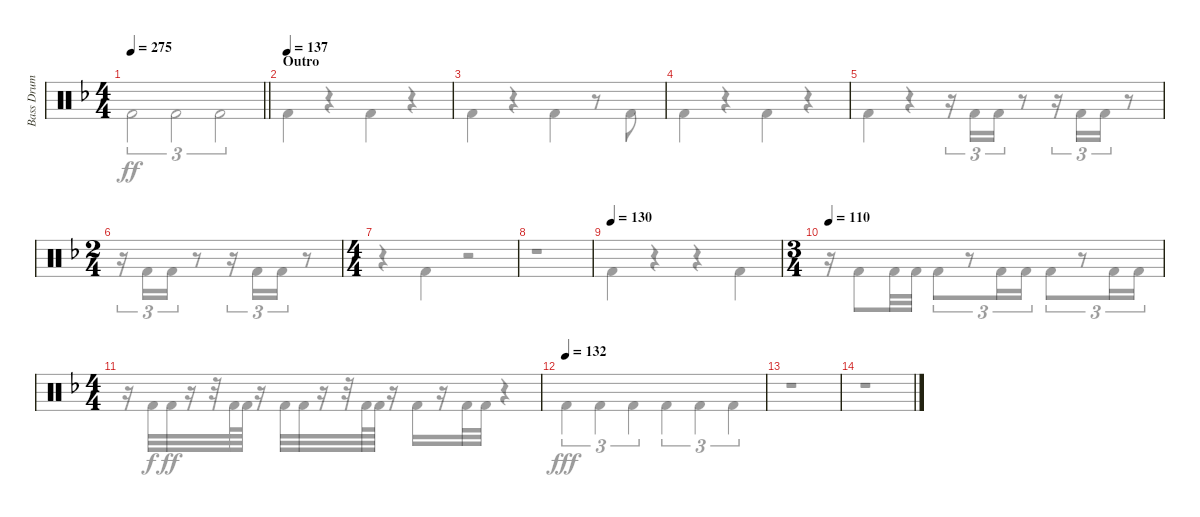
\track ("Bass Drum" "Bass Drum") {instrument percussion}
\staff {score}
\articulation defaults
\voice
\ts (4 4)
\tempo 275
\clef neutral
\barLineRight lightlight
\ks dminor
|
\section ("" "Outro")
\tempo 137
|
|
|
|
\ts (2 4)
|
\ts (4 4)
|
|
\tempo 130
|
\ts (3 4)
\tempo 110
|
\ts (4 4)
|
\tempo 132
|
|
\voice
\clef neutral
\barLineRight lightlight
\ks dminor "Kick (hit) 2".2{tu (3 2) dy ff} "Kick (hit) 2".2{tu (3 2)} "Kick (hit) 2".2{tu (3 2)}
|
"Kick (hit) 2".4 r.4 "Kick (hit) 2".4 r.4 |
"Kick (hit) 2".4 r.4 "Kick (hit) 2".4 r.8 "Kick (hit) 2".8 |
"Kick (hit) 2".4 r.4 "Kick (hit) 2".4 r.4 |
"Kick (hit) 2".4 r.4 r.16{tu (3 2)} "Kick (hit) 2".16{tu (3 2)} "Kick (hit) 2".16{tu (3 2)} r.8 r.16{tu (3 2)} "Kick (hit) 2".16{tu (3 2)} "Kick (hit) 2".16{tu (3 2)} r.8 |
r.16{tu (3 2)} "Kick (hit) 2".16{tu (3 2)} "Kick (hit) 2".16{tu (3 2)} r.8 r.16{tu (3 2)} "Kick (hit) 2".16{tu (3 2)} "Kick (hit) 2".16{tu (3 2)} r.8 |
r.4 "Kick (hit) 2".4 r.2 |
r.1 |
"Kick (hit) 2".4 r.4 r.4 "Kick (hit) 2".4 |
r.16 "Kick (hit) 2".8 "Kick (hit) 2".32 "Kick (hit) 2".32 "Kick (hit) 2".8{tu (3 2)} r.8{tu (3 2)} "Kick (hit) 2".16{tu (3 2)} "Kick (hit) 2".16{tu (3 2)} "Kick (hit) 2".8{tu (3 2)} r.8{tu (3 2)} "Kick (hit) 2".16{tu (3 2)} "Kick (hit) 2".16{tu (3 2)} |
r.16 "Kick (hit) 2".32{dy f} "Kick (hit) 2".32{dy ff} r.16 r.32 "Kick (hit) 2".64 "Kick (hit) 2".64 r.16 "Kick (hit) 2".32 "Kick (hit) 2".32 r.16 r.32 "Kick (hit) 2".64 "Kick (hit) 2".64 r.16 "Kick (hit) 2".16 r.16 "Kick (hit) 2".32 "Kick (hit) 2".32 r.4 |
"Kick (hit) 2".4{tu (3 2) dy fff} "Kick (hit) 2".4{tu (3 2)} "Kick (hit) 2".4{tu (3 2)} "Kick (hit) 2".4{tu (3 2)} "Kick (hit) 2".4{tu (3 2)} "Kick (hit) 2".4{tu (3 2)} |
r.1 |
r.1
